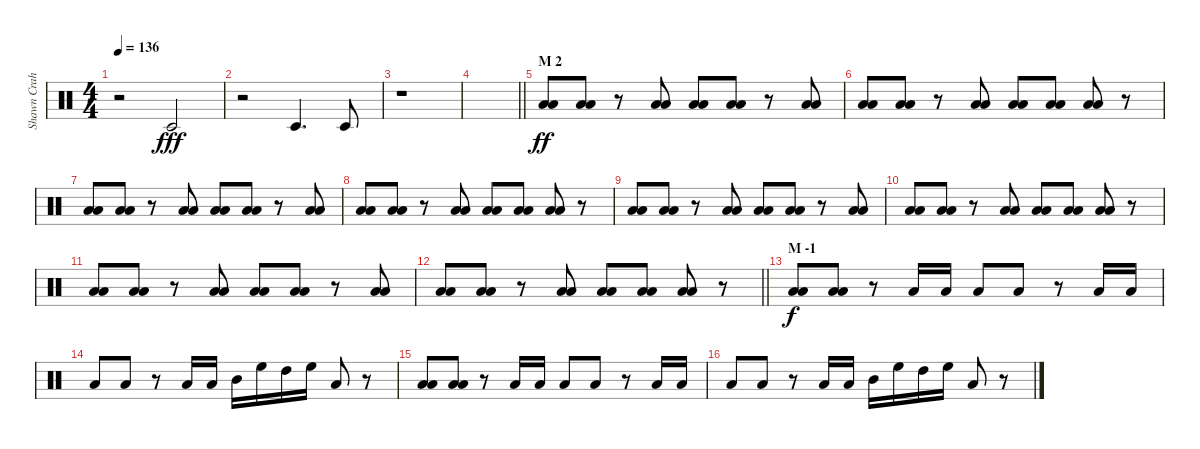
\track ("Shawn Crahan" "Shawn Crah") {instrument percussion}
\staff {score}
\articulation defaults
\ts (4 4)
\tempo 136
\clef neutral
\ks c
r.2{dy fff} "Timbale low (hit)".2 |
r.2 "Timbale low (hit)".4{d} "Timbale low (hit)".8 |
r.1 |
\barLineRight lightlight
|
\section ("" "M 2")
("Low Floor Tom (hit)" "Low Floor Tom (hit)").8{dy ff} ("Low Floor Tom (hit)" "Low Floor Tom (hit)").8 r.8 ("Low Floor Tom (hit)" "Low Floor Tom (hit)").8 ("Low Floor Tom (hit)" "Low Floor Tom (hit)").8 ("Low Floor Tom (hit)" "Low Floor Tom (hit)").8 r.8 ("Low Floor Tom (hit)" "Low Floor Tom (hit)").8 |
("Low Floor Tom (hit)" "Low Floor Tom (hit)").8 ("Low Floor Tom (hit)" "Low Floor Tom (hit)").8 r.8 ("Low Floor Tom (hit)" "Low Floor Tom (hit)").8 ("Low Floor Tom (hit)" "Low Floor Tom (hit)").8 ("Low Floor Tom (hit)" "Low Floor Tom (hit)").8 ("Low Floor Tom (hit)" "Low Floor Tom (hit)").8 r.8 |
("Low Floor Tom (hit)" "Low Floor Tom (hit)").8 ("Low Floor Tom (hit)" "Low Floor Tom (hit)").8 r.8 ("Low Floor Tom (hit)" "Low Floor Tom (hit)").8 ("Low Floor Tom (hit)" "Low Floor Tom (hit)").8 ("Low Floor Tom (hit)" "Low Floor Tom (hit)").8 r.8 ("Low Floor Tom (hit)" "Low Floor Tom (hit)").8 |
("Low Floor Tom (hit)" "Low Floor Tom (hit)").8 ("Low Floor Tom (hit)" "Low Floor Tom (hit)").8 r.8 ("Low Floor Tom (hit)" "Low Floor Tom (hit)").8 ("Low Floor Tom (hit)" "Low Floor Tom (hit)").8 ("Low Floor Tom (hit)" "Low Floor Tom (hit)").8 ("Low Floor Tom (hit)" "Low Floor Tom (hit)").8 r.8 |
("Low Floor Tom (hit)" "Low Floor Tom (hit)").8 ("Low Floor Tom (hit)" "Low Floor Tom (hit)").8 r.8 ("Low Floor Tom (hit)" "Low Floor Tom (hit)").8 ("Low Floor Tom (hit)" "Low Floor Tom (hit)").8 ("Low Floor Tom (hit)" "Low Floor Tom (hit)").8 r.8 ("Low Floor Tom (hit)" "Low Floor Tom (hit)").8 |
("Low Floor Tom (hit)" "Low Floor Tom (hit)").8 ("Low Floor Tom (hit)" "Low Floor Tom (hit)").8 r.8 ("Low Floor Tom (hit)" "Low Floor Tom (hit)").8 ("Low Floor Tom (hit)" "Low Floor Tom (hit)").8 ("Low Floor Tom (hit)" "Low Floor Tom (hit)").8 ("Low Floor Tom (hit)" "Low Floor Tom (hit)").8 r.8 |
("Low Floor Tom (hit)" "Low Floor Tom (hit)").8 ("Low Floor Tom (hit)" "Low Floor Tom (hit)").8 r.8 ("Low Floor Tom (hit)" "Low Floor Tom (hit)").8 ("Low Floor Tom (hit)" "Low Floor Tom (hit)").8 ("Low Floor Tom (hit)" "Low Floor Tom (hit)").8 r.8 ("Low Floor Tom (hit)" "Low Floor Tom (hit)").8 |
\barLineRight lightlight
("Low Floor Tom (hit)" "Low Floor Tom (hit)").8 ("Low Floor Tom (hit)" "Low Floor Tom (hit)").8 r.8 ("Low Floor Tom (hit)" "Low Floor Tom (hit)").8 ("Low Floor Tom (hit)" "Low Floor Tom (hit)").8 ("Low Floor Tom (hit)" "Low Floor Tom (hit)").8 ("Low Floor Tom (hit)" "Low Floor Tom (hit)").8 r.8 |
\section ("" "M -1")
("Low Floor Tom (hit)" "Low Floor Tom (hit)").8{dy f} ("Low Floor Tom (hit)" "Low Floor Tom (hit)").8 r.8 "Low Floor Tom (hit)".16 "Low Floor Tom (hit)".16 "Low Floor Tom (hit)".8 "Low Floor Tom (hit)".8 r.8 "Low Floor Tom (hit)".16 "Low Floor Tom (hit)".16 |
"Low Floor Tom (hit)".8 "Low Floor Tom (hit)".8 r.8 "Low Floor Tom (hit)".16 "Low Floor Tom (hit)".16 "Mid Tom (hit)".16 "High Floor Tom (hit)".16 "High Tom (hit)".16 "High Floor Tom (hit)".16 "Low Floor Tom (hit)".8 r.8 |
("Low Floor Tom (hit)" "Low Floor Tom (hit)").8 ("Low Floor Tom (hit)" "Low Floor Tom (hit)").8 r.8 "Low Floor Tom (hit)".16 "Low Floor Tom (hit)".16 "Low Floor Tom (hit)".8 "Low Floor Tom (hit)".8 r.8 "Low Floor Tom (hit)".16 "Low Floor Tom (hit)".16 |
"Low Floor Tom (hit)".8 "Low Floor Tom (hit)".8 r.8 "Low Floor Tom (hit)".16 "Low Floor Tom (hit)".16 "Mid Tom (hit)".16 "High Floor Tom (hit)".16 "High Tom (hit)".16 "High Floor Tom (hit)".16 "Low Floor Tom (hit)".8 r.8
